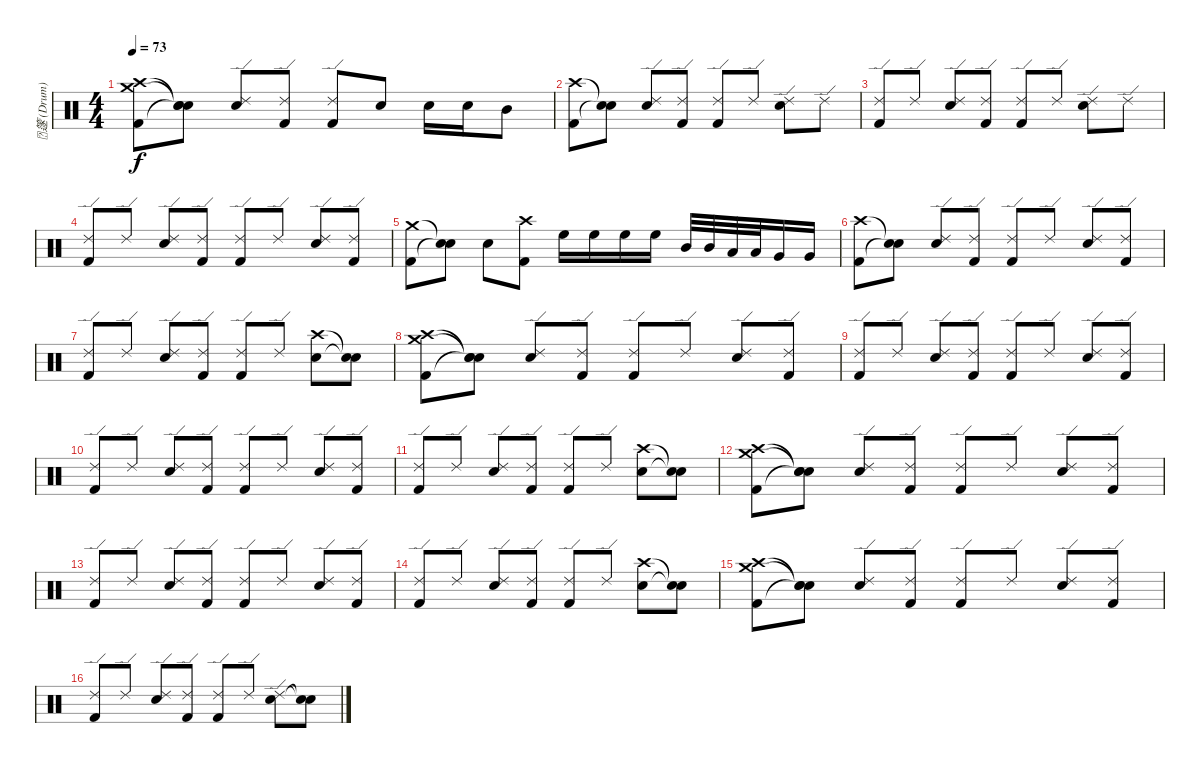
\track ("篴 (Drum)" "篴 (Drum)") {instrument percussion}
\staff {score}
\articulation defaults
\ts (4 4)
\tempo 73
\clef neutral
\ks c
("Crash high (hit)" "Crash medium (hit)" "Kick (hit) 2").8{dy f} ("Snare (hit)"{t} "Snare (hit)"{t} "Snare (hit)"{t}).8 ("Ride (edge) 2" "Electric Snare (hit)").8 ("Ride (edge) 2" "Kick (hit) 2").8 ("Ride (edge) 2" "Kick (hit) 2").8 "Electric Snare (hit)".8 "Electric Snare (hit)".16 "Electric Snare (hit)".16 "Mid Tom (hit)".8 |
("Crash high (hit)" "Kick (hit) 2").8 ("Snare (hit)"{t} "Snare (hit)"{t}).8 ("Ride (edge) 2" "Electric Snare (hit)").8 ("Ride (edge) 2" "Kick (hit) 2").8 ("Ride (edge) 2" "Kick (hit) 2").8 "Ride (edge) 2".8 ("Ride (edge) 2" "Electric Snare (hit)").8 "Ride (edge) 2".8 |
("Ride (edge) 2" "Kick (hit) 2").8 "Ride (edge) 2".8 ("Ride (edge) 2" "Electric Snare (hit)").8 ("Ride (edge) 2" "Kick (hit) 2").8 ("Ride (edge) 2" "Kick (hit) 2").8 "Ride (edge) 2".8 ("Ride (edge) 2" "Electric Snare (hit)").8 "Ride (edge) 2".8 |
("Ride (edge) 2" "Kick (hit) 2").8 "Ride (edge) 2".8 ("Ride (edge) 2" "Electric Snare (hit)").8 ("Ride (edge) 2" "Kick (hit) 2").8 ("Ride (edge) 2" "Kick (hit) 2").8 "Ride (edge) 2".8 ("Ride (edge) 2" "Electric Snare (hit)").8 ("Ride (edge) 2" "Kick (hit) 2").8 |
("Crash medium (hit)" "Kick (hit) 2").8 ("Snare (hit)"{t} "Snare (hit)"{t}).8 "Electric Snare (hit)".8 ("Crash high (hit)" "Kick (hit) 2").8 "High Floor Tom (hit)".16 "High Floor Tom (hit)".16 "High Floor Tom (hit)".16 "High Floor Tom (hit)".16 "Mid Tom (hit)".32 "Mid Tom (hit)".32 "Low Tom (hit)".32 "Low Tom (hit)".32 "Very Low Tom (hit)".16 "Very Low Tom (hit)".16 |
("Crash high (hit)" "Kick (hit) 2").8 ("Snare (hit)"{t} "Snare (hit)"{t}).8 ("Ride (edge) 2" "Electric Snare (hit)").8 ("Ride (edge) 2" "Kick (hit) 2").8 ("Ride (edge) 2" "Kick (hit) 2").8 "Ride (edge) 2".8 ("Ride (edge) 2" "Electric Snare (hit)").8 ("Ride (edge) 2" "Kick (hit) 2").8 |
("Ride (edge) 2" "Kick (hit) 2").8 "Ride (edge) 2".8 ("Ride (edge) 2" "Electric Snare (hit)").8 ("Ride (edge) 2" "Kick (hit) 2").8 ("Ride (edge) 2" "Kick (hit) 2").8 "Ride (edge) 2".8 ("Crash high (hit)" "Electric Snare (hit)").8 ("Snare (hit)"{t} "Snare (hit)"{t}).8 |
("Crash high (hit)" "Crash medium (hit)" "Kick (hit) 2").8 ("Snare (hit)"{t} "Snare (hit)"{t} "Snare (hit)"{t}).8 ("Ride (edge) 2" "Electric Snare (hit)").8 ("Ride (edge) 2" "Kick (hit) 2").8 ("Ride (edge) 2" "Kick (hit) 2").8 "Ride (edge) 2".8 ("Ride (edge) 2" "Electric Snare (hit)").8 ("Ride (edge) 2" "Kick (hit) 2").8 |
("Ride (edge) 2" "Kick (hit) 2").8 "Ride (edge) 2".8 ("Ride (edge) 2" "Electric Snare (hit)").8 ("Ride (edge) 2" "Kick (hit) 2").8 ("Ride (edge) 2" "Kick (hit) 2").8 "Ride (edge) 2".8 ("Ride (edge) 2" "Electric Snare (hit)").8 ("Ride (edge) 2" "Kick (hit) 2").8 |
("Ride (edge) 2" "Kick (hit) 2").8 "Ride (edge) 2".8 ("Ride (edge) 2" "Electric Snare (hit)").8 ("Ride (edge) 2" "Kick (hit) 2").8 ("Ride (edge) 2" "Kick (hit) 2").8 "Ride (edge) 2".8 ("Ride (edge) 2" "Electric Snare (hit)").8 ("Ride (edge) 2" "Kick (hit) 2").8 |
("Ride (edge) 2" "Kick (hit) 2").8 "Ride (edge) 2".8 ("Ride (edge) 2" "Electric Snare (hit)").8 ("Ride (edge) 2" "Kick (hit) 2").8 ("Ride (edge) 2" "Kick (hit) 2").8 "Ride (edge) 2".8 ("Crash high (hit)" "Electric Snare (hit)").8 ("Snare (hit)"{t} "Snare (hit)"{t}).8 |
("Crash high (hit)" "Crash medium (hit)" "Kick (hit) 2").8 ("Snare (hit)"{t} "Snare (hit)"{t} "Snare (hit)"{t}).8 ("Ride (edge) 2" "Electric Snare (hit)").8 ("Ride (edge) 2" "Kick (hit) 2").8 ("Ride (edge) 2" "Kick (hit) 2").8 "Ride (edge) 2".8 ("Ride (edge) 2" "Electric Snare (hit)").8 ("Ride (edge) 2" "Kick (hit) 2").8 |
("Ride (edge) 2" "Kick (hit) 2").8 "Ride (edge) 2".8 ("Ride (edge) 2" "Electric Snare (hit)").8 ("Ride (edge) 2" "Kick (hit) 2").8 ("Ride (edge) 2" "Kick (hit) 2").8 "Ride (edge) 2".8 ("Ride (edge) 2" "Electric Snare (hit)").8 ("Ride (edge) 2" "Kick (hit) 2").8 |
("Ride (edge) 2" "Kick (hit) 2").8 "Ride (edge) 2".8 ("Ride (edge) 2" "Electric Snare (hit)").8 ("Ride (edge) 2" "Kick (hit) 2").8 ("Ride (edge) 2" "Kick (hit) 2").8 "Ride (edge) 2".8 ("Crash high (hit)" "Electric Snare (hit)").8 ("Snare (hit)"{t} "Snare (hit)"{t}).8 |
("Crash high (hit)" "Crash medium (hit)" "Kick (hit) 2").8 ("Snare (hit)"{t} "Snare (hit)"{t} "Snare (hit)"{t}).8 ("Ride (edge) 2" "Electric Snare (hit)").8 ("Ride (edge) 2" "Kick (hit) 2").8 ("Ride (edge) 2" "Kick (hit) 2").8 "Ride (edge) 2".8 ("Ride (edge) 2" "Electric Snare (hit)").8 ("Ride (edge) 2" "Kick (hit) 2").8 |
("Ride (edge) 2" "Kick (hit) 2").8 "Ride (edge) 2".8 ("Ride (edge) 2" "Electric Snare (hit)").8 ("Ride (edge) 2" "Kick (hit) 2").8 ("Ride (edge) 2" "Kick (hit) 2").8 "Ride (edge) 2".8 ("Ride (edge) 2" "Electric Snare (hit)").8 ("Snare (hit)"{t} "Snare (hit)"{t}).8
